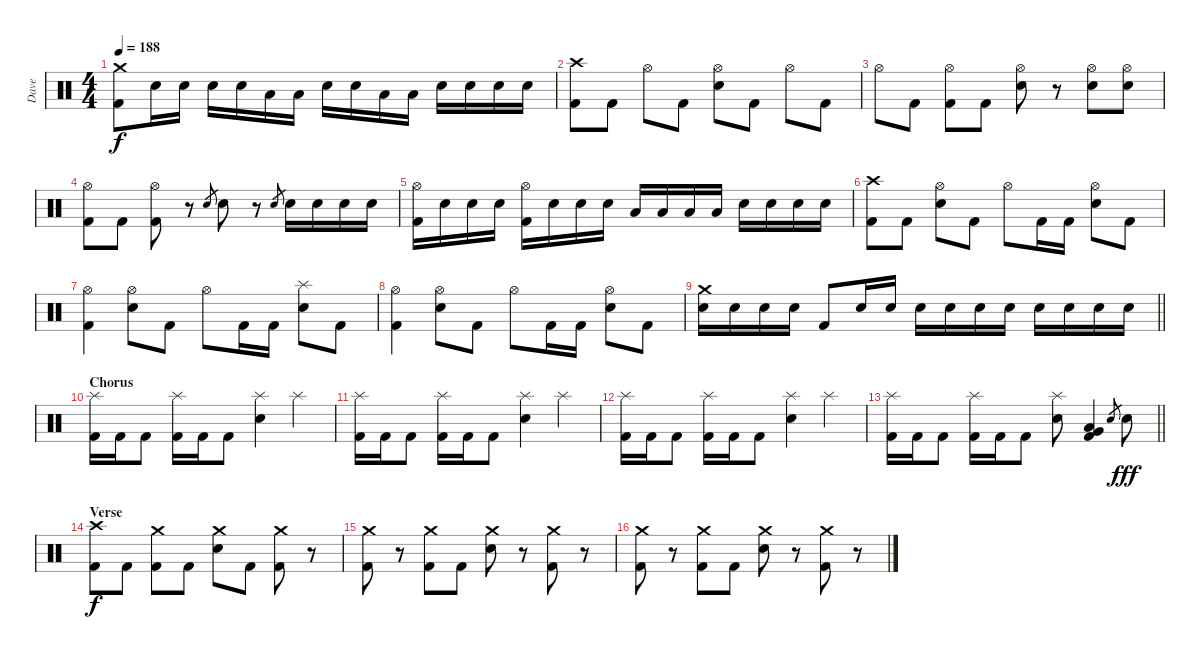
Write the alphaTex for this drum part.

\track ("Dave" "Dave") {instrument percussion}
\staff {score}
\articulation defaults
\ts (4 4)
\tempo 188
\clef neutral
\ks c
("Crash medium (hit)" "Kick (hit) 2").8{dy f} "Electric Snare (hit)".16 "Electric Snare (hit)".16 "Electric Snare (hit)".16 "Electric Snare (hit)".16 "Low Tom (hit)".16 "Low Tom (hit)".16 "Electric Snare (hit)".16 "Electric Snare (hit)".16 "Low Tom (hit)".16 "Low Tom (hit)".16 "Electric Snare (hit)".16 "Electric Snare (hit)".16 "Electric Snare (hit)".16 "Electric Snare (hit)".16 |
("Crash high (hit)" "Kick (hit) 2").8 "Kick (hit) 2".8 "Hi-Hat (open)".8 "Kick (hit) 2".8 ("Electric Snare (hit)" "Hi-Hat (open)").8 "Kick (hit) 2".8 "Hi-Hat (open)".8 "Kick (hit) 2".8 |
"Hi-Hat (open)".8 "Kick (hit) 2".8 ("Kick (hit) 2" "Hi-Hat (open)").8 "Kick (hit) 2".8 ("Electric Snare (hit)" "Hi-Hat (open)").8 r.8 ("Electric Snare (hit)" "Hi-Hat (open)").8 ("Electric Snare (hit)" "Hi-Hat (open)").8 |
("Kick (hit) 2" "Hi-Hat (open)").8 "Kick (hit) 2".8 ("Kick (hit) 2" "Hi-Hat (open)").8 r.8 "Electric Snare (hit)".8{gr} "Electric Snare (hit)".8 r.8 "Electric Snare (hit)".8{gr} "Electric Snare (hit)".16 "Electric Snare (hit)".16 "Electric Snare (hit)".16 "Electric Snare (hit)".16 |
("Hi-Hat (open)" "Kick (hit) 2").16 "Electric Snare (hit)".16 "Electric Snare (hit)".16 "Electric Snare (hit)".16 ("Hi-Hat (open)" "Kick (hit) 2").16 "Electric Snare (hit)".16 "Electric Snare (hit)".16 "Electric Snare (hit)".16 "Low Tom (hit)".16 "Low Tom (hit)".16 "Low Tom (hit)".16 "Low Tom (hit)".16 "Electric Snare (hit)".16 "Electric Snare (hit)".16 "Electric Snare (hit)".16 "Electric Snare (hit)".16 |
("Crash high (hit)" "Kick (hit) 2").8 "Kick (hit) 2".8 ("Electric Snare (hit)" "Hi-Hat (open)").8 "Kick (hit) 2".8 "Hi-Hat (open)".8 "Kick (hit) 2".16 "Kick (hit) 2".16 ("Electric Snare (hit)" "Hi-Hat (open)").8 "Kick (hit) 2".8 |
("Hi-Hat (open)" "Kick (hit) 2").4 ("Electric Snare (hit)" "Hi-Hat (open)").8 "Kick (hit) 2".8 "Hi-Hat (open)".8 "Kick (hit) 2".16 "Kick (hit) 2".16 ("Electric Snare (hit)" "Splash (hit)").8 "Kick (hit) 2".8 |
("Hi-Hat (open)" "Kick (hit) 2").4 ("Electric Snare (hit)" "Hi-Hat (open)").8 "Kick (hit) 2".8 "Hi-Hat (open)".8 "Kick (hit) 2".16 "Kick (hit) 2".16 ("Electric Snare (hit)" "Hi-Hat (open)").8 "Kick (hit) 2".8 |
\barLineRight lightlight
("Crash medium (hit)" "Electric Snare (hit)").16 "Electric Snare (hit)".16 "Electric Snare (hit)".16 "Electric Snare (hit)".16 "Kick (hit) 2".8 "Electric Snare (hit)".16 "Electric Snare (hit)".16 "Electric Snare (hit)".16 "Electric Snare (hit)".16 "Electric Snare (hit)".16 "Electric Snare (hit)".16 "Electric Snare (hit)".16 "Electric Snare (hit)".16 "Electric Snare (hit)".16 "Electric Snare (hit)".16 |
\section ("" "Chorus")
("Kick (hit) 2" "Splash (hit)").16 "Kick (hit) 2".16 "Kick (hit) 2".8 ("Kick (hit) 2" "Splash (hit)").16 "Kick (hit) 2".16 "Kick (hit) 2".8 ("Electric Snare (hit)" "Splash (hit)").4 "Splash (hit)".4 |
("Kick (hit) 2" "Splash (hit)").16 "Kick (hit) 2".16 "Kick (hit) 2".8 ("Kick (hit) 2" "Splash (hit)").16 "Kick (hit) 2".16 "Kick (hit) 2".8 ("Electric Snare (hit)" "Splash (hit)").4 "Splash (hit)".4 |
("Kick (hit) 2" "Splash (hit)").16 "Kick (hit) 2".16 "Kick (hit) 2".8 ("Kick (hit) 2" "Splash (hit)").16 "Kick (hit) 2".16 "Kick (hit) 2".8 ("Electric Snare (hit)" "Splash (hit)").4 "Splash (hit)".4 |
\barLineRight lightlight
("Kick (hit) 2" "Splash (hit)").16 "Kick (hit) 2".16 "Kick (hit) 2".8 ("Kick (hit) 2" "Splash (hit)").16 "Kick (hit) 2".16 "Kick (hit) 2".8 ("Electric Snare (hit)" "Splash (hit)").8 ("Very Low Tom (hit)" "Low Floor Tom (hit)" "Kick (hit) 2").4 "Electric Snare (hit)".8{gr} "Electric Snare (hit)".8{dy fff} |
\section ("" "Verse")
("Crash high (hit)" "Kick (hit) 2").8{dy f} "Kick (hit) 2".8 ("Kick (hit) 2" "Crash medium (hit)").8 "Kick (hit) 2".8 ("Electric Snare (hit)" "Crash medium (hit)").8 "Kick (hit) 2".8 ("Kick (hit) 2" "Crash medium (hit)").8 r.8 |
("Kick (hit) 2" "Crash medium (hit)").8 r.8 ("Kick (hit) 2" "Crash medium (hit)").8 "Kick (hit) 2".8 ("Electric Snare (hit)" "Crash medium (hit)").8 r.8 ("Kick (hit) 2" "Crash medium (hit)").8 r.8 |
("Kick (hit) 2" "Crash medium (hit)").8 r.8 ("Kick (hit) 2" "Crash medium (hit)").8 "Kick (hit) 2".8 ("Electric Snare (hit)" "Crash medium (hit)").8 r.8 ("Kick (hit) 2" "Crash medium (hit)").8 r.8
